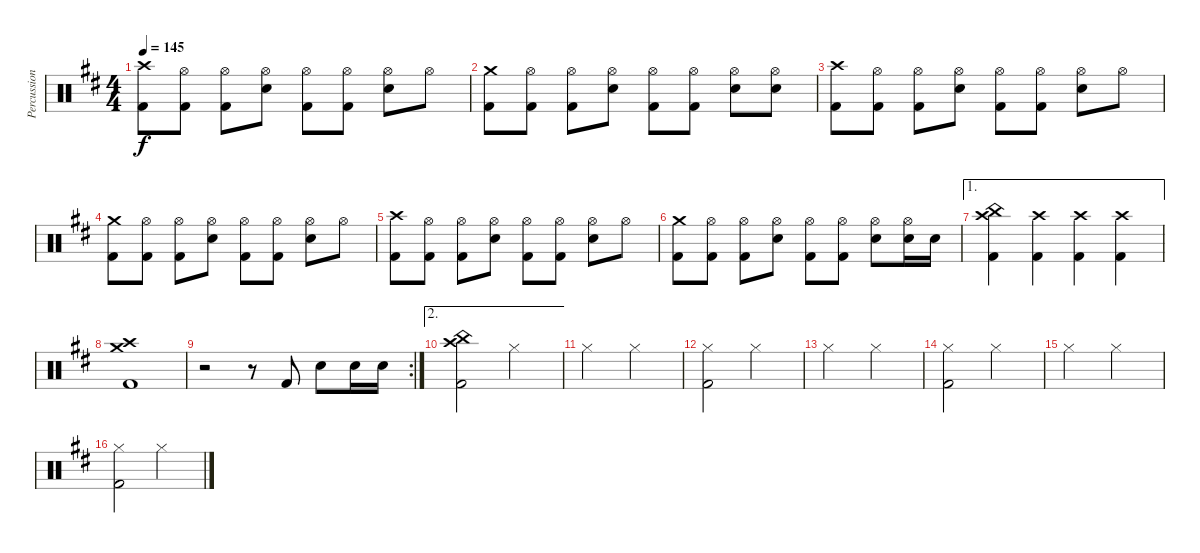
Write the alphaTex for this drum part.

\track ("Percussion" "Percussion") {instrument percussion}
\staff {score}
\articulation defaults
\ts (4 4)
\tempo 145
\clef neutral
\ks d
("Crash high (hit)" "Kick (hit) 2").8{dy f} ("Hi-Hat (open)" "Kick (hit) 2").8 ("Hi-Hat (open)" "Kick (hit) 2").8 ("Hi-Hat (open)" "Electric Snare (hit)").8 ("Hi-Hat (open)" "Kick (hit) 2").8 ("Hi-Hat (open)" "Kick (hit) 2").8 ("Hi-Hat (open)" "Electric Snare (hit)").8 "Hi-Hat (open)".8 |
("Crash medium (hit)" "Kick (hit) 2").8 ("Hi-Hat (open)" "Kick (hit) 2").8 ("Hi-Hat (open)" "Kick (hit) 2").8 ("Hi-Hat (open)" "Electric Snare (hit)").8 ("Hi-Hat (open)" "Kick (hit) 2").8 ("Hi-Hat (open)" "Kick (hit) 2").8 ("Hi-Hat (open)" "Electric Snare (hit)").8 ("Hi-Hat (open)" "Electric Snare (hit)").8 |
("Crash high (hit)" "Kick (hit) 2").8 ("Hi-Hat (open)" "Kick (hit) 2").8 ("Hi-Hat (open)" "Kick (hit) 2").8 ("Hi-Hat (open)" "Electric Snare (hit)").8 ("Hi-Hat (open)" "Kick (hit) 2").8 ("Hi-Hat (open)" "Kick (hit) 2").8 ("Hi-Hat (open)" "Electric Snare (hit)").8 "Hi-Hat (open)".8 |
("Crash medium (hit)" "Kick (hit) 2").8 ("Hi-Hat (open)" "Kick (hit) 2").8 ("Hi-Hat (open)" "Kick (hit) 2").8 ("Hi-Hat (open)" "Electric Snare (hit)").8 ("Hi-Hat (open)" "Kick (hit) 2").8 ("Hi-Hat (open)" "Kick (hit) 2").8 ("Hi-Hat (open)" "Electric Snare (hit)").8 "Hi-Hat (open)".8 |
("Crash high (hit)" "Kick (hit) 2").8 ("Hi-Hat (open)" "Kick (hit) 2").8 ("Hi-Hat (open)" "Kick (hit) 2").8 ("Hi-Hat (open)" "Electric Snare (hit)").8 ("Hi-Hat (open)" "Kick (hit) 2").8 ("Hi-Hat (open)" "Kick (hit) 2").8 ("Hi-Hat (open)" "Electric Snare (hit)").8 "Hi-Hat (open)".8 |
("Crash medium (hit)" "Kick (hit) 2").8 ("Hi-Hat (open)" "Kick (hit) 2").8 ("Hi-Hat (open)" "Kick (hit) 2").8 ("Hi-Hat (open)" "Electric Snare (hit)").8 ("Hi-Hat (open)" "Kick (hit) 2").8 ("Hi-Hat (open)" "Kick (hit) 2").8 ("Hi-Hat (open)" "Electric Snare (hit)").8 ("Hi-Hat (open)" "Electric Snare (hit)").16 "Electric Snare (hit)".16 |
\ae 1
("Crash high (hit)" "China (hit)" "Kick (hit) 2").4 ("Crash high (hit)" "Kick (hit) 2").4 ("Crash high (hit)" "Kick (hit) 2").4 ("Crash high (hit)" "Kick (hit) 2").4 |
("Crash medium (hit)" "Crash high (hit)" "Kick (hit) 2").1 |
\rc 2
r.2 r.8 "Kick (hit) 2".8 "Electric Snare (hit)".8 "Electric Snare (hit)".16 "Electric Snare (hit)".16 |
\ae 2
("China (hit)" "Crash high (hit)" "Kick (hit) 2").2 "Hi-Hat (closed)".2 |
"Hi-Hat (closed)".2 "Hi-Hat (closed)".2 |
("Hi-Hat (closed)" "Kick (hit) 2").2 "Hi-Hat (closed)".2 |
"Hi-Hat (closed)".2 "Hi-Hat (closed)".2 |
("Hi-Hat (closed)" "Kick (hit) 2").2 "Hi-Hat (closed)".2 |
"Hi-Hat (closed)".2 "Hi-Hat (closed)".2 |
("Hi-Hat (closed)" "Kick (hit) 2").2 "Hi-Hat (closed)".2
